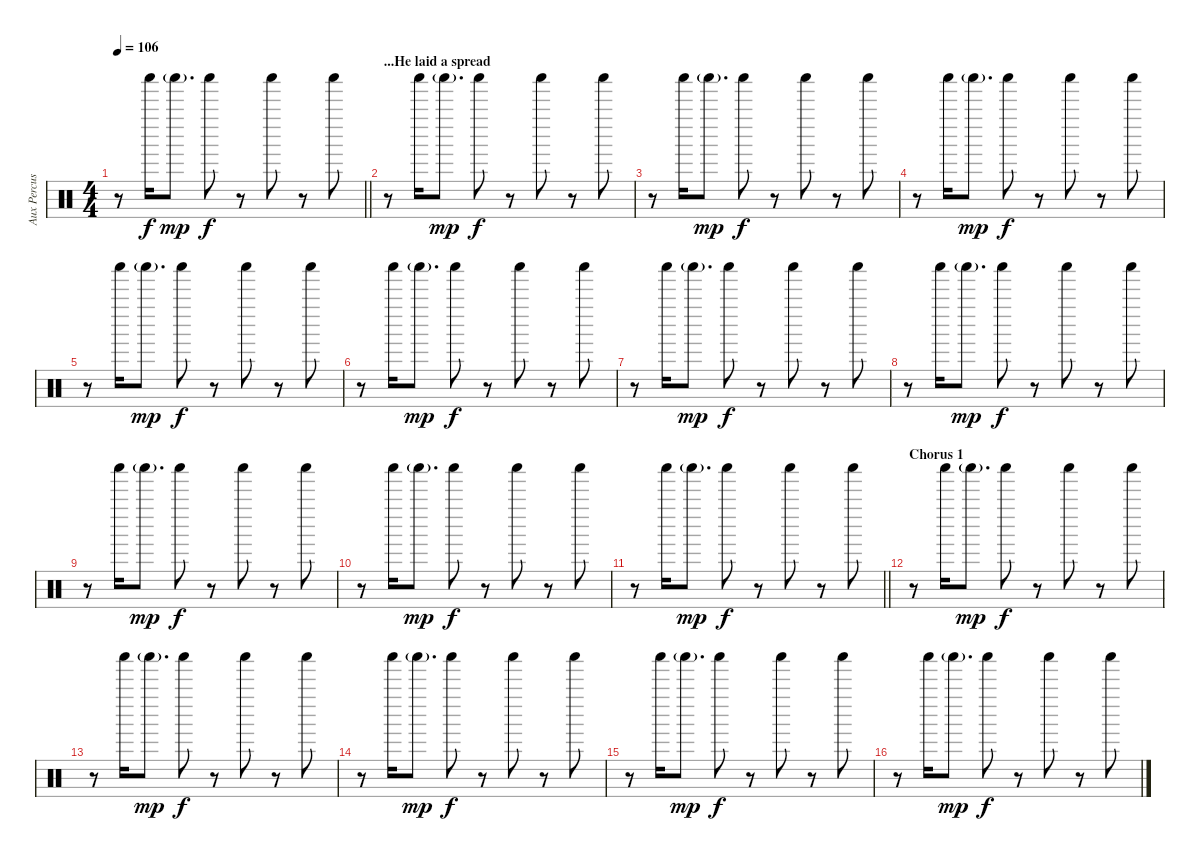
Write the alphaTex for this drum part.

\track ("Aux Percussion" "Aux Percus") {instrument percussion}
\staff {score}
\articulation defaults
\ts (4 4)
\tempo 106
\clef neutral
\barLineRight lightlight
\ks c
r.8{dy f} "Shaker (hit)".16 "Shaker (hit)"{g}.8{d dy mp} "Shaker (hit)".8{dy f} r.8 "Shaker (hit)".8 r.8 "Shaker (hit)".8 |
\section ("" "...He laid a spread")
r.8 "Shaker (hit)".16 "Shaker (hit)"{g}.8{d dy mp} "Shaker (hit)".8{dy f} r.8 "Shaker (hit)".8 r.8 "Shaker (hit)".8 |
r.8 "Shaker (hit)".16 "Shaker (hit)"{g}.8{d dy mp} "Shaker (hit)".8{dy f} r.8 "Shaker (hit)".8 r.8 "Shaker (hit)".8 |
r.8 "Shaker (hit)".16 "Shaker (hit)"{g}.8{d dy mp} "Shaker (hit)".8{dy f} r.8 "Shaker (hit)".8 r.8 "Shaker (hit)".8 |
r.8 "Shaker (hit)".16 "Shaker (hit)"{g}.8{d dy mp} "Shaker (hit)".8{dy f} r.8 "Shaker (hit)".8 r.8 "Shaker (hit)".8 |
r.8 "Shaker (hit)".16 "Shaker (hit)"{g}.8{d dy mp} "Shaker (hit)".8{dy f} r.8 "Shaker (hit)".8 r.8 "Shaker (hit)".8 |
r.8 "Shaker (hit)".16 "Shaker (hit)"{g}.8{d dy mp} "Shaker (hit)".8{dy f} r.8 "Shaker (hit)".8 r.8 "Shaker (hit)".8 |
r.8 "Shaker (hit)".16 "Shaker (hit)"{g}.8{d dy mp} "Shaker (hit)".8{dy f} r.8 "Shaker (hit)".8 r.8 "Shaker (hit)".8 |
r.8 "Shaker (hit)".16 "Shaker (hit)"{g}.8{d dy mp} "Shaker (hit)".8{dy f} r.8 "Shaker (hit)".8 r.8 "Shaker (hit)".8 |
r.8 "Shaker (hit)".16 "Shaker (hit)"{g}.8{d dy mp} "Shaker (hit)".8{dy f} r.8 "Shaker (hit)".8 r.8 "Shaker (hit)".8 |
\barLineRight lightlight
r.8 "Shaker (hit)".16 "Shaker (hit)"{g}.8{d dy mp} "Shaker (hit)".8{dy f} r.8 "Shaker (hit)".8 r.8 "Shaker (hit)".8 |
\section ("" "Chorus 1")
r.8 "Shaker (hit)".16 "Shaker (hit)"{g}.8{d dy mp} "Shaker (hit)".8{dy f} r.8 "Shaker (hit)".8 r.8 "Shaker (hit)".8 |
r.8 "Shaker (hit)".16 "Shaker (hit)"{g}.8{d dy mp} "Shaker (hit)".8{dy f} r.8 "Shaker (hit)".8 r.8 "Shaker (hit)".8 |
r.8 "Shaker (hit)".16 "Shaker (hit)"{g}.8{d dy mp} "Shaker (hit)".8{dy f} r.8 "Shaker (hit)".8 r.8 "Shaker (hit)".8 |
r.8 "Shaker (hit)".16 "Shaker (hit)"{g}.8{d dy mp} "Shaker (hit)".8{dy f} r.8 "Shaker (hit)".8 r.8 "Shaker (hit)".8 |
r.8 "Shaker (hit)".16 "Shaker (hit)"{g}.8{d dy mp} "Shaker (hit)".8{dy f} r.8 "Shaker (hit)".8 r.8 "Shaker (hit)".8
